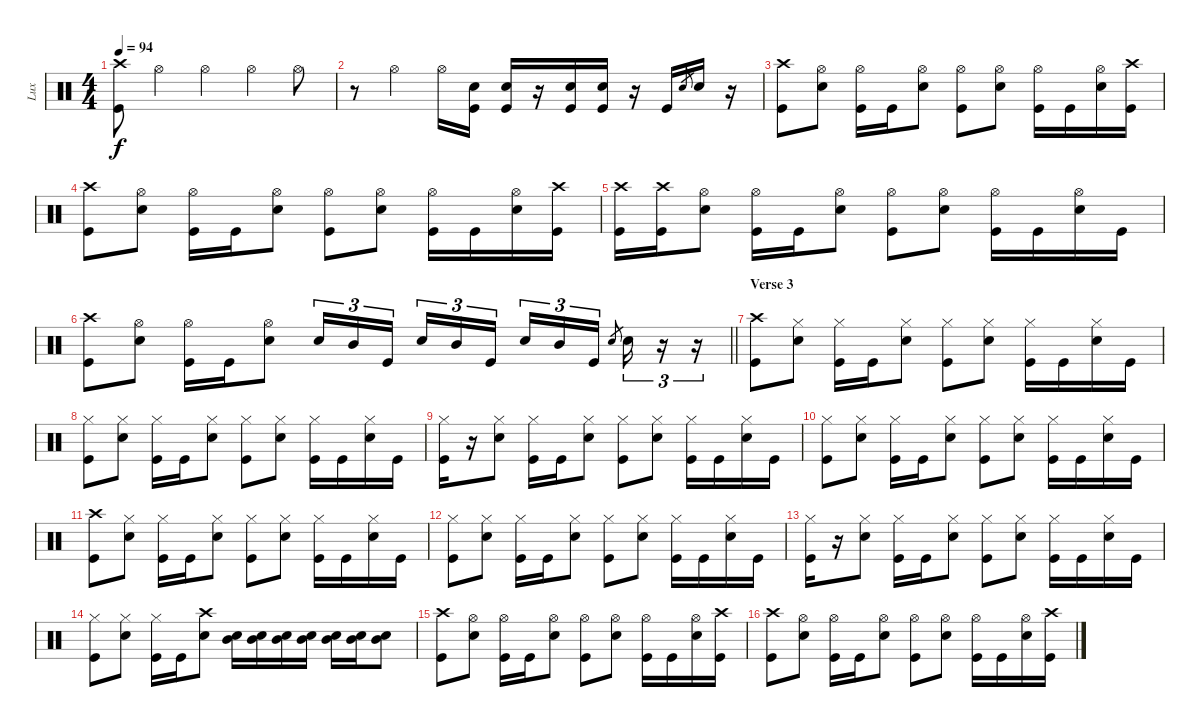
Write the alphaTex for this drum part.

\track ("Lux" "Lux") {instrument percussion}
\staff {score}
\articulation defaults
\ts (4 4)
\tempo 94
\clef neutral
\ks c
("Crash high (hit)" "Kick (hit)").8{dy f} "Hi-Hat (open)".4 "Hi-Hat (open)".4 "Hi-Hat (open)".4 "Hi-Hat (open)".8 |
r.8 "Hi-Hat (open)".4 "Hi-Hat (open)".16 ("Snare (hit) 2" "Kick (hit)").16 ("Snare (hit) 2" "Kick (hit)").16 r.16 ("Snare (hit) 2" "Kick (hit)").16 ("Snare (hit) 2" "Kick (hit)").16 r.16 "Kick (hit)".16 "Snare (hit) 2".8{gr} "Snare (hit) 2".16 r.16 |
("Crash high (hit)" "Kick (hit)").8 ("Hi-Hat (open)" "Snare (hit) 2").8 ("Hi-Hat (open)" "Kick (hit)").16 "Kick (hit)".16 ("Hi-Hat (open)" "Snare (hit) 2").8 ("Hi-Hat (open)" "Kick (hit)").8 ("Hi-Hat (open)" "Snare (hit) 2").8 ("Hi-Hat (open)" "Kick (hit)").16 "Kick (hit)".16 ("Hi-Hat (open)" "Snare (hit) 2").16 ("Crash high (hit)" "Kick (hit)").16 |
("Crash high (hit)" "Kick (hit)").8 ("Hi-Hat (open)" "Snare (hit) 2").8 ("Hi-Hat (open)" "Kick (hit)").16 "Kick (hit)".16 ("Hi-Hat (open)" "Snare (hit) 2").8 ("Hi-Hat (open)" "Kick (hit)").8 ("Hi-Hat (open)" "Snare (hit) 2").8 ("Hi-Hat (open)" "Kick (hit)").16 "Kick (hit)".16 ("Hi-Hat (open)" "Snare (hit) 2").16 ("Crash high (hit)" "Kick (hit)").16 |
("Crash high (hit)" "Kick (hit)").16 ("Crash high (hit)" "Kick (hit)").16 ("Hi-Hat (open)" "Snare (hit) 2").8 ("Hi-Hat (open)" "Kick (hit)").16 "Kick (hit)".16 ("Hi-Hat (open)" "Snare (hit) 2").8 ("Hi-Hat (open)" "Kick (hit)").8 ("Hi-Hat (open)" "Snare (hit) 2").8 ("Hi-Hat (open)" "Kick (hit)").16 "Kick (hit)".16 ("Hi-Hat (open)" "Snare (hit) 2").16 "Kick (hit)".16 |
\barLineRight lightlight
("Crash high (hit)" "Kick (hit)").8 ("Hi-Hat (open)" "Snare (hit) 2").8 ("Hi-Hat (open)" "Kick (hit)").16 "Kick (hit)".16 ("Hi-Hat (open)" "Snare (hit) 2").8 "Snare (hit) 2".16{tu (3 2)} "Mid Tom (hit)".16{tu (3 2)} "Kick (hit)".16{tu (3 2) beam splitsecondary} "Snare (hit) 2".16{tu (3 2)} "Mid Tom (hit)".16{tu (3 2)} "Kick (hit)".16{tu (3 2)} "Snare (hit) 2".16{tu (3 2)} "Mid Tom (hit)".16{tu (3 2)} "Kick (hit)".16{tu (3 2)} "Snare (hit) 2".8{gr beam splitsecondary} "Snare (hit) 2".16{tu (3 2)} r.16{tu (3 2)} r.16{tu (3 2)} |
\section ("" "Verse 3")
("Crash high (hit)" "Kick (hit)").8 ("Hi-Hat (closed)" "Snare (hit) 2").8 ("Hi-Hat (closed)" "Kick (hit)").16 "Kick (hit)".16 ("Hi-Hat (closed)" "Snare (hit) 2").8 ("Hi-Hat (closed)" "Kick (hit)").8 ("Hi-Hat (closed)" "Snare (hit) 2").8 ("Hi-Hat (closed)" "Kick (hit)").16 "Kick (hit)".16 ("Hi-Hat (closed)" "Snare (hit) 2").16 "Kick (hit)".16 |
("Hi-Hat (closed)" "Kick (hit)").8 ("Hi-Hat (closed)" "Snare (hit) 2").8 ("Hi-Hat (closed)" "Kick (hit)").16 "Kick (hit)".16 ("Hi-Hat (closed)" "Snare (hit) 2").8 ("Hi-Hat (closed)" "Kick (hit)").8 ("Hi-Hat (closed)" "Snare (hit) 2").8 ("Hi-Hat (closed)" "Kick (hit)").16 "Kick (hit)".16 ("Hi-Hat (closed)" "Snare (hit) 2").16 "Kick (hit)".16 |
("Hi-Hat (closed)" "Kick (hit)").16 r.16 ("Hi-Hat (closed)" "Snare (hit) 2").8 ("Hi-Hat (closed)" "Kick (hit)").16 "Kick (hit)".16 ("Hi-Hat (closed)" "Snare (hit) 2").8 ("Hi-Hat (closed)" "Kick (hit)").8 ("Hi-Hat (closed)" "Snare (hit) 2").8 ("Hi-Hat (closed)" "Kick (hit)").16 "Kick (hit)".16 ("Hi-Hat (closed)" "Snare (hit) 2").16 "Kick (hit)".16 |
("Hi-Hat (closed)" "Kick (hit)").8 ("Hi-Hat (closed)" "Snare (hit) 2").8 ("Hi-Hat (closed)" "Kick (hit)").16 "Kick (hit)".16 ("Hi-Hat (closed)" "Snare (hit) 2").8 ("Hi-Hat (closed)" "Kick (hit)").8 ("Hi-Hat (closed)" "Snare (hit) 2").8 ("Hi-Hat (closed)" "Kick (hit)").16 "Kick (hit)".16 ("Hi-Hat (closed)" "Snare (hit) 2").16 "Kick (hit)".16 |
("Crash high (hit)" "Kick (hit)").8 ("Hi-Hat (closed)" "Snare (hit) 2").8 ("Hi-Hat (closed)" "Kick (hit)").16 "Kick (hit)".16 ("Hi-Hat (closed)" "Snare (hit) 2").8 ("Hi-Hat (closed)" "Kick (hit)").8 ("Hi-Hat (closed)" "Snare (hit) 2").8 ("Hi-Hat (closed)" "Kick (hit)").16 "Kick (hit)".16 ("Hi-Hat (closed)" "Snare (hit) 2").16 "Kick (hit)".16 |
("Hi-Hat (closed)" "Kick (hit)").8 ("Hi-Hat (closed)" "Snare (hit) 2").8 ("Hi-Hat (closed)" "Kick (hit)").16 "Kick (hit)".16 ("Hi-Hat (closed)" "Snare (hit) 2").8 ("Hi-Hat (closed)" "Kick (hit)").8 ("Hi-Hat (closed)" "Snare (hit) 2").8 ("Hi-Hat (closed)" "Kick (hit)").16 "Kick (hit)".16 ("Hi-Hat (closed)" "Snare (hit) 2").16 "Kick (hit)".16 |
("Hi-Hat (closed)" "Kick (hit)").16 r.16 ("Hi-Hat (closed)" "Snare (hit) 2").8 ("Hi-Hat (closed)" "Kick (hit)").16 "Kick (hit)".16 ("Hi-Hat (closed)" "Snare (hit) 2").8 ("Hi-Hat (closed)" "Kick (hit)").8 ("Hi-Hat (closed)" "Snare (hit) 2").8 ("Hi-Hat (closed)" "Kick (hit)").16 "Kick (hit)".16 ("Hi-Hat (closed)" "Snare (hit) 2").16 "Kick (hit)".16 |
("Hi-Hat (closed)" "Kick (hit)").8 ("Hi-Hat (closed)" "Snare (hit) 2").8 ("Hi-Hat (closed)" "Kick (hit)").16 "Kick (hit)".16 ("Crash high (hit)" "Snare (hit) 2").8 ("Mid Tom (hit)" "Snare (hit) 2").16 ("Mid Tom (hit)" "Snare (hit) 2").16 ("Mid Tom (hit)" "Snare (hit) 2").16 ("Mid Tom (hit)" "Snare (hit) 2").16 ("Mid Tom (hit)" "Snare (hit) 2").16 ("Mid Tom (hit)" "Snare (hit) 2").16 ("Mid Tom (hit)" "Snare (hit) 2").8 |
("Crash high (hit)" "Kick (hit)").8 ("Hi-Hat (open)" "Snare (hit) 2").8 ("Hi-Hat (open)" "Kick (hit)").16 "Kick (hit)".16 ("Hi-Hat (open)" "Snare (hit) 2").8 ("Hi-Hat (open)" "Kick (hit)").8 ("Hi-Hat (open)" "Snare (hit) 2").8 ("Hi-Hat (open)" "Kick (hit)").16 "Kick (hit)".16 ("Hi-Hat (open)" "Snare (hit) 2").16 ("Crash high (hit)" "Kick (hit)").16 |
("Crash high (hit)" "Kick (hit)").8 ("Hi-Hat (open)" "Snare (hit) 2").8 ("Hi-Hat (open)" "Kick (hit)").16 "Kick (hit)".16 ("Hi-Hat (open)" "Snare (hit) 2").8 ("Hi-Hat (open)" "Kick (hit)").8 ("Hi-Hat (open)" "Snare (hit) 2").8 ("Hi-Hat (open)" "Kick (hit)").16 "Kick (hit)".16 ("Hi-Hat (open)" "Snare (hit) 2").16 ("Crash high (hit)" "Kick (hit)").16
